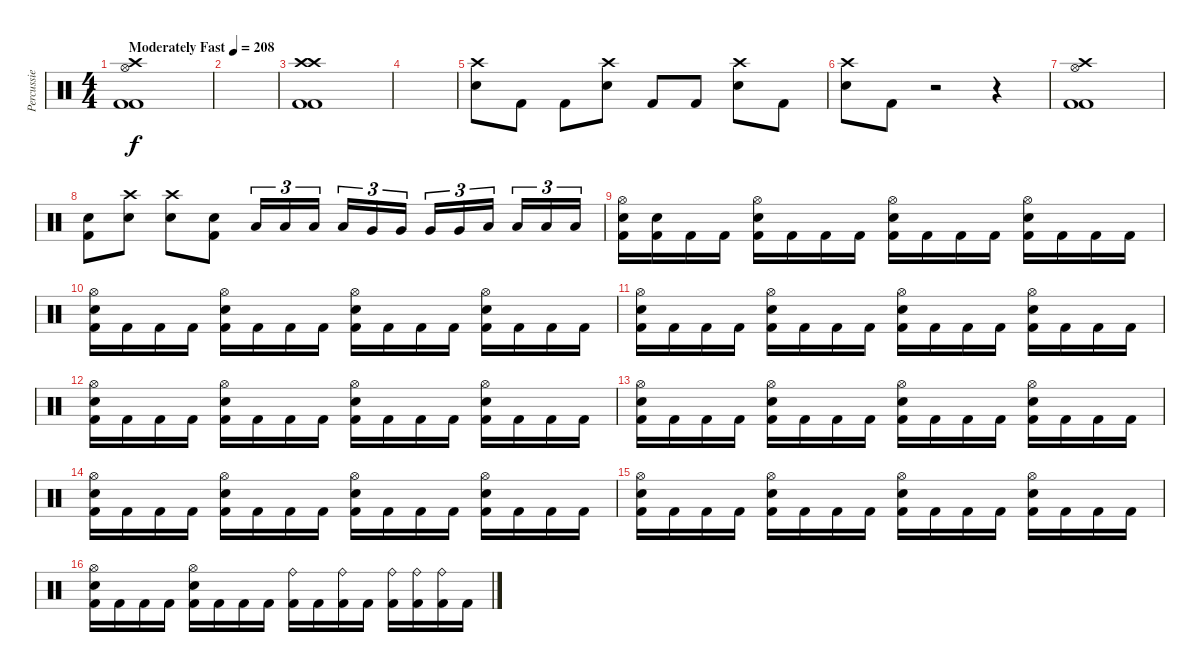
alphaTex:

\track ("Percussie" "Percussie") {instrument percussion}
\staff {score}
\articulation defaults
\ts (4 4)
\tempo (208 "Moderately Fast")
\clef neutral
\ks c
("Crash high (hit)" "Hi-Hat (open)" "Kick (hit) 2" "Kick (hit) 2").1{dy f} |
|
("Crash high (hit)" "Crash high (hit)" "Kick (hit) 2" "Kick (hit) 2").1 |
|
("Crash high (hit)" "Electric Snare (hit)").8 "Kick (hit) 2".8 "Kick (hit) 2".8 ("Crash high (hit)" "Electric Snare (hit)").8 "Kick (hit) 2".8 "Kick (hit) 2".8 ("Crash high (hit)" "Electric Snare (hit)").8 "Kick (hit) 2".8 |
("Crash high (hit)" "Electric Snare (hit)").8 "Kick (hit) 2".8 r.2 r.4 |
("Crash high (hit)" "Hi-Hat (open)" "Kick (hit) 2" "Kick (hit) 2").1 |
("Electric Snare (hit)" "Kick (hit) 2").8 ("Crash high (hit)" "Electric Snare (hit)").8 ("Crash high (hit)" "Electric Snare (hit)").8 ("Electric Snare (hit)" "Kick (hit) 2").8 "Low Tom (hit)".16{tu (3 2)} "Low Tom (hit)".16{tu (3 2)} "Low Tom (hit)".16{tu (3 2) beam splitsecondary} "Low Tom (hit)".16{tu (3 2)} "Very Low Tom (hit)".16{tu (3 2)} "Very Low Tom (hit)".16{tu (3 2)} "Very Low Tom (hit)".16{tu (3 2)} "Very Low Tom (hit)".16{tu (3 2)} "Low Floor Tom (hit)".16{tu (3 2) beam splitsecondary} "Low Floor Tom (hit)".16{tu (3 2)} "Low Floor Tom (hit)".16{tu (3 2)} "Low Floor Tom (hit)".16{tu (3 2)} |
("Hi-Hat (open)" "Electric Snare (hit)" "Kick (hit) 2").16 ("Electric Snare (hit)" "Kick (hit) 2").16 "Kick (hit) 2".16 "Kick (hit) 2".16 ("Hi-Hat (open)" "Electric Snare (hit)" "Kick (hit) 2").16 "Kick (hit) 2".16 "Kick (hit) 2".16 "Kick (hit) 2".16 ("Hi-Hat (open)" "Electric Snare (hit)" "Kick (hit) 2").16 "Kick (hit) 2".16 "Kick (hit) 2".16 "Kick (hit) 2".16 ("Hi-Hat (open)" "Electric Snare (hit)" "Kick (hit) 2").16 "Kick (hit) 2".16 "Kick (hit) 2".16 "Kick (hit) 2".16 |
("Hi-Hat (open)" "Electric Snare (hit)" "Kick (hit) 2").16 "Kick (hit) 2".16 "Kick (hit) 2".16 "Kick (hit) 2".16 ("Hi-Hat (open)" "Electric Snare (hit)" "Kick (hit) 2").16 "Kick (hit) 2".16 "Kick (hit) 2".16 "Kick (hit) 2".16 ("Hi-Hat (open)" "Electric Snare (hit)" "Kick (hit) 2").16 "Kick (hit) 2".16 "Kick (hit) 2".16 "Kick (hit) 2".16 ("Hi-Hat (open)" "Electric Snare (hit)" "Kick (hit) 2").16 "Kick (hit) 2".16 "Kick (hit) 2".16 "Kick (hit) 2".16 |
("Hi-Hat (open)" "Electric Snare (hit)" "Kick (hit) 2").16 "Kick (hit) 2".16 "Kick (hit) 2".16 "Kick (hit) 2".16 ("Hi-Hat (open)" "Electric Snare (hit)" "Kick (hit) 2").16 "Kick (hit) 2".16 "Kick (hit) 2".16 "Kick (hit) 2".16 ("Hi-Hat (open)" "Electric Snare (hit)" "Kick (hit) 2").16 "Kick (hit) 2".16 "Kick (hit) 2".16 "Kick (hit) 2".16 ("Hi-Hat (open)" "Electric Snare (hit)" "Kick (hit) 2").16 "Kick (hit) 2".16 "Kick (hit) 2".16 "Kick (hit) 2".16 |
("Hi-Hat (open)" "Electric Snare (hit)" "Kick (hit) 2").16 "Kick (hit) 2".16 "Kick (hit) 2".16 "Kick (hit) 2".16 ("Hi-Hat (open)" "Electric Snare (hit)" "Kick (hit) 2").16 "Kick (hit) 2".16 "Kick (hit) 2".16 "Kick (hit) 2".16 ("Hi-Hat (open)" "Electric Snare (hit)" "Kick (hit) 2").16 "Kick (hit) 2".16 "Kick (hit) 2".16 "Kick (hit) 2".16 ("Hi-Hat (open)" "Electric Snare (hit)" "Kick (hit) 2").16 "Kick (hit) 2".16 "Kick (hit) 2".16 "Kick (hit) 2".16 |
("Hi-Hat (open)" "Electric Snare (hit)" "Kick (hit) 2").16 "Kick (hit) 2".16 "Kick (hit) 2".16 "Kick (hit) 2".16 ("Hi-Hat (open)" "Electric Snare (hit)" "Kick (hit) 2").16 "Kick (hit) 2".16 "Kick (hit) 2".16 "Kick (hit) 2".16 ("Hi-Hat (open)" "Electric Snare (hit)" "Kick (hit) 2").16 "Kick (hit) 2".16 "Kick (hit) 2".16 "Kick (hit) 2".16 ("Hi-Hat (open)" "Electric Snare (hit)" "Kick (hit) 2").16 "Kick (hit) 2".16 "Kick (hit) 2".16 "Kick (hit) 2".16 |
("Hi-Hat (open)" "Electric Snare (hit)" "Kick (hit) 2").16 "Kick (hit) 2".16 "Kick (hit) 2".16 "Kick (hit) 2".16 ("Hi-Hat (open)" "Electric Snare (hit)" "Kick (hit) 2").16 "Kick (hit) 2".16 "Kick (hit) 2".16 "Kick (hit) 2".16 ("Hi-Hat (open)" "Electric Snare (hit)" "Kick (hit) 2").16 "Kick (hit) 2".16 "Kick (hit) 2".16 "Kick (hit) 2".16 ("Hi-Hat (open)" "Electric Snare (hit)" "Kick (hit) 2").16 "Kick (hit) 2".16 "Kick (hit) 2".16 "Kick (hit) 2".16 |
("Hi-Hat (open)" "Electric Snare (hit)" "Kick (hit) 2").16 "Kick (hit) 2".16 "Kick (hit) 2".16 "Kick (hit) 2".16 ("Hi-Hat (open)" "Electric Snare (hit)" "Kick (hit) 2").16 "Kick (hit) 2".16 "Kick (hit) 2".16 "Kick (hit) 2".16 ("Hi-Hat (open)" "Electric Snare (hit)" "Kick (hit) 2").16 "Kick (hit) 2".16 "Kick (hit) 2".16 "Kick (hit) 2".16 ("Hi-Hat (open)" "Electric Snare (hit)" "Kick (hit) 2").16 "Kick (hit) 2".16 "Kick (hit) 2".16 "Kick (hit) 2".16 |
("Hi-Hat (open)" "Electric Snare (hit)" "Kick (hit) 2").16 "Kick (hit) 2".16 "Kick (hit) 2".16 "Kick (hit) 2".16 ("Hi-Hat (open)" "Electric Snare (hit)" "Kick (hit) 2").16 "Kick (hit) 2".16 "Kick (hit) 2".16 "Kick (hit) 2".16 ("Ride (bell)" "Kick (hit) 2").16 "Kick (hit) 2".16 ("Ride (bell)" "Kick (hit) 2").16 "Kick (hit) 2".16 ("Ride (bell)" "Kick (hit) 2").16 ("Ride (bell)" "Kick (hit) 2").16 ("Ride (bell)" "Kick (hit) 2").16 "Kick (hit) 2".16
